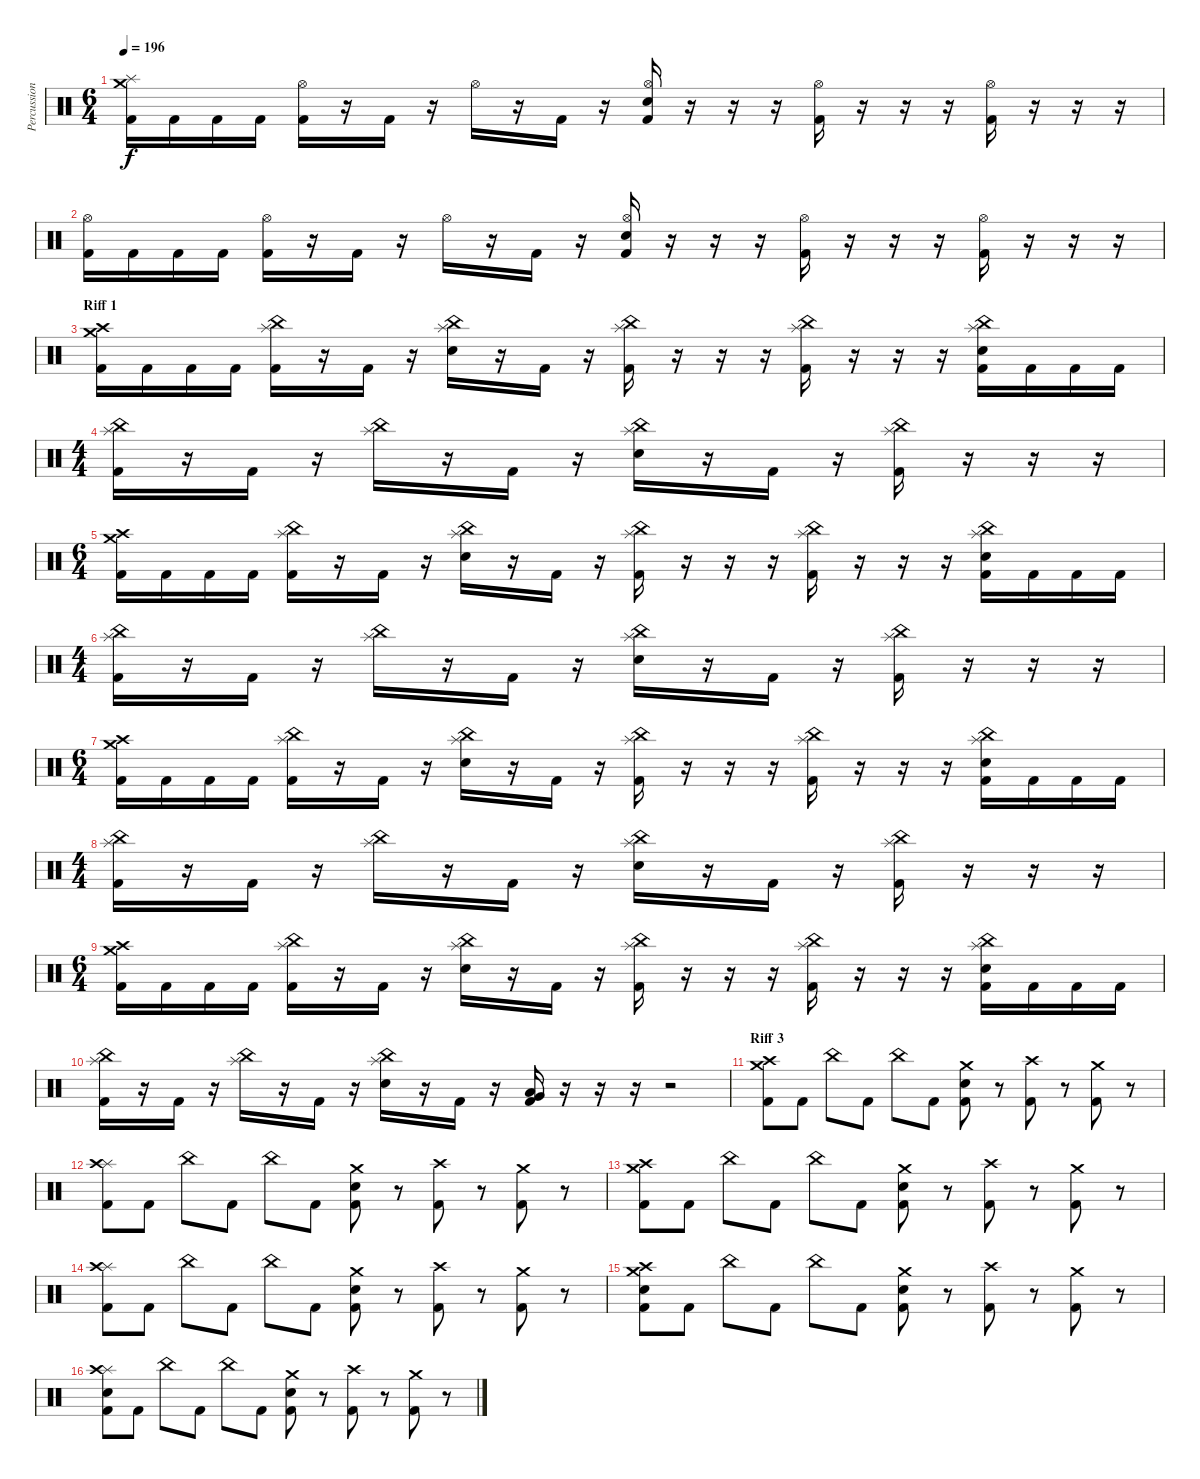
\track ("Percussion" "Percussion") {instrument percussion}
\staff {score}
\articulation defaults
\ts (6 4)
\tempo 196
\clef neutral
\ks c
("Crash medium (hit)" "Splash (hit)" "Kick (hit) 2").16{dy f} "Kick (hit) 2".16 "Kick (hit) 2".16 "Kick (hit) 2".16 ("Hi-Hat (open)" "Kick (hit) 2").16 r.16 "Kick (hit) 2".16 r.16 "Hi-Hat (open)".16 r.16 "Kick (hit) 2".16 r.16 ("Hi-Hat (open)" "Electric Snare (hit)" "Kick (hit) 2").16 r.16 r.16 r.16 ("Hi-Hat (open)" "Kick (hit) 2").16 r.16 r.16 r.16 ("Hi-Hat (open)" "Kick (hit) 2").16 r.16 r.16 r.16 |
("Hi-Hat (open)" "Kick (hit) 2").16 "Kick (hit) 2".16 "Kick (hit) 2".16 "Kick (hit) 2".16 ("Hi-Hat (open)" "Kick (hit) 2").16 r.16 "Kick (hit) 2".16 r.16 "Hi-Hat (open)".16 r.16 "Kick (hit) 2".16 r.16 ("Hi-Hat (open)" "Electric Snare (hit)" "Kick (hit) 2").16 r.16 r.16 r.16 ("Hi-Hat (open)" "Kick (hit) 2").16 r.16 r.16 r.16 ("Hi-Hat (open)" "Kick (hit) 2").16 r.16 r.16 r.16 |
\section ("" "Riff 1")
("Crash medium (hit)" "Crash high (hit)" "Kick (hit) 2").16 "Kick (hit) 2".16 "Kick (hit) 2".16 "Kick (hit) 2".16 ("Splash (hit)" "China (hit)" "Kick (hit) 2").16 r.16 "Kick (hit) 2".16 r.16 ("Splash (hit)" "China (hit)" "Electric Snare (hit)").16 r.16 "Kick (hit) 2".16 r.16 ("Splash (hit)" "China (hit)" "Kick (hit) 2").16 r.16 r.16 r.16 ("Splash (hit)" "China (hit)" "Kick (hit) 2").16 r.16 r.16 r.16 ("Splash (hit)" "China (hit)" "Electric Snare (hit)" "Kick (hit) 2").16 "Kick (hit) 2".16 "Kick (hit) 2".16 "Kick (hit) 2".16 |
\ts (4 4)
("Splash (hit)" "China (hit)" "Kick (hit) 2").16 r.16 "Kick (hit) 2".16 r.16 ("Splash (hit)" "China (hit)").16 r.16 "Kick (hit) 2".16 r.16 ("Splash (hit)" "China (hit)" "Electric Snare (hit)").16 r.16 "Kick (hit) 2".16 r.16 ("Splash (hit)" "China (hit)" "Kick (hit) 2").16 r.16 r.16 r.16 |
\ts (6 4)
("Crash medium (hit)" "Crash high (hit)" "Kick (hit) 2").16 "Kick (hit) 2".16 "Kick (hit) 2".16 "Kick (hit) 2".16 ("Splash (hit)" "China (hit)" "Kick (hit) 2").16 r.16 "Kick (hit) 2".16 r.16 ("Splash (hit)" "China (hit)" "Electric Snare (hit)").16 r.16 "Kick (hit) 2".16 r.16 ("Splash (hit)" "China (hit)" "Kick (hit) 2").16 r.16 r.16 r.16 ("Splash (hit)" "China (hit)" "Kick (hit) 2").16 r.16 r.16 r.16 ("Splash (hit)" "China (hit)" "Electric Snare (hit)" "Kick (hit) 2").16 "Kick (hit) 2".16 "Kick (hit) 2".16 "Kick (hit) 2".16 |
\ts (4 4)
("Splash (hit)" "China (hit)" "Kick (hit) 2").16 r.16 "Kick (hit) 2".16 r.16 ("Splash (hit)" "China (hit)").16 r.16 "Kick (hit) 2".16 r.16 ("Splash (hit)" "China (hit)" "Electric Snare (hit)").16 r.16 "Kick (hit) 2".16 r.16 ("Splash (hit)" "China (hit)" "Kick (hit) 2").16 r.16 r.16 r.16 |
\ts (6 4)
("Crash medium (hit)" "Crash high (hit)" "Kick (hit) 2").16 "Kick (hit) 2".16 "Kick (hit) 2".16 "Kick (hit) 2".16 ("Splash (hit)" "China (hit)" "Kick (hit) 2").16 r.16 "Kick (hit) 2".16 r.16 ("Splash (hit)" "China (hit)" "Electric Snare (hit)").16 r.16 "Kick (hit) 2".16 r.16 ("Splash (hit)" "China (hit)" "Kick (hit) 2").16 r.16 r.16 r.16 ("Splash (hit)" "China (hit)" "Kick (hit) 2").16 r.16 r.16 r.16 ("Splash (hit)" "China (hit)" "Electric Snare (hit)" "Kick (hit) 2").16 "Kick (hit) 2".16 "Kick (hit) 2".16 "Kick (hit) 2".16 |
\ts (4 4)
("Splash (hit)" "China (hit)" "Kick (hit) 2").16 r.16 "Kick (hit) 2".16 r.16 ("Splash (hit)" "China (hit)").16 r.16 "Kick (hit) 2".16 r.16 ("Splash (hit)" "China (hit)" "Electric Snare (hit)").16 r.16 "Kick (hit) 2".16 r.16 ("Splash (hit)" "China (hit)" "Kick (hit) 2").16 r.16 r.16 r.16 |
\ts (6 4)
("Crash medium (hit)" "Crash high (hit)" "Kick (hit) 2").16 "Kick (hit) 2".16 "Kick (hit) 2".16 "Kick (hit) 2".16 ("Splash (hit)" "China (hit)" "Kick (hit) 2").16 r.16 "Kick (hit) 2".16 r.16 ("Splash (hit)" "China (hit)" "Electric Snare (hit)").16 r.16 "Kick (hit) 2".16 r.16 ("Splash (hit)" "China (hit)" "Kick (hit) 2").16 r.16 r.16 r.16 ("Splash (hit)" "China (hit)" "Kick (hit) 2").16 r.16 r.16 r.16 ("Splash (hit)" "China (hit)" "Electric Snare (hit)" "Kick (hit) 2").16 "Kick (hit) 2".16 "Kick (hit) 2".16 "Kick (hit) 2".16 |
("Splash (hit)" "China (hit)" "Kick (hit) 2").16 r.16 "Kick (hit) 2".16 r.16 ("Splash (hit)" "China (hit)").16 r.16 "Kick (hit) 2".16 r.16 ("Splash (hit)" "China (hit)" "Electric Snare (hit)").16 r.16 "Kick (hit) 2".16 r.16 ("Very Low Tom (hit)" "Low Floor Tom (hit)" "Kick (hit) 2").16 r.16 r.16 r.16 r.2 |
\section ("" "Riff 3")
("Crash medium (hit)" "Crash high (hit)" "Kick (hit) 2").8 "Kick (hit) 2".8 "China (hit)".8 "Kick (hit) 2".8 "China (hit)".8 "Kick (hit) 2".8 ("Crash medium (hit)" "Electric Snare (hit)" "Kick (hit) 2").8 r.8 ("Crash high (hit)" "Kick (hit) 2").8 r.8 ("Crash medium (hit)" "Kick (hit) 2").8 r.8 |
("Splash (hit)" "Crash high (hit)" "Kick (hit) 2").8 "Kick (hit) 2".8 "China (hit)".8 "Kick (hit) 2".8 "China (hit)".8 "Kick (hit) 2".8 ("Crash medium (hit)" "Electric Snare (hit)" "Kick (hit) 2").8 r.8 ("Crash high (hit)" "Kick (hit) 2").8 r.8 ("Crash medium (hit)" "Kick (hit) 2").8 r.8 |
("Crash medium (hit)" "Crash high (hit)" "Kick (hit) 2").8 "Kick (hit) 2".8 "China (hit)".8 "Kick (hit) 2".8 "China (hit)".8 "Kick (hit) 2".8 ("Crash medium (hit)" "Electric Snare (hit)" "Kick (hit) 2").8 r.8 ("Crash high (hit)" "Kick (hit) 2").8 r.8 ("Crash medium (hit)" "Kick (hit) 2").8 r.8 |
("Splash (hit)" "Crash high (hit)" "Kick (hit) 2").8 "Kick (hit) 2".8 "China (hit)".8 "Kick (hit) 2".8 "China (hit)".8 "Kick (hit) 2".8 ("Crash medium (hit)" "Electric Snare (hit)" "Kick (hit) 2").8 r.8 ("Crash high (hit)" "Kick (hit) 2").8 r.8 ("Crash medium (hit)" "Kick (hit) 2").8 r.8 |
("Crash medium (hit)" "Crash high (hit)" "Electric Snare (hit)" "Kick (hit) 2").8 "Kick (hit) 2".8 "China (hit)".8 "Kick (hit) 2".8 "China (hit)".8 "Kick (hit) 2".8 ("Crash medium (hit)" "Electric Snare (hit)" "Kick (hit) 2").8 r.8 ("Crash high (hit)" "Kick (hit) 2").8 r.8 ("Crash medium (hit)" "Kick (hit) 2").8 r.8 |
("Splash (hit)" "Crash high (hit)" "Electric Snare (hit)" "Kick (hit) 2").8 "Kick (hit) 2".8 "China (hit)".8 "Kick (hit) 2".8 "China (hit)".8 "Kick (hit) 2".8 ("Crash medium (hit)" "Electric Snare (hit)" "Kick (hit) 2").8 r.8 ("Crash high (hit)" "Kick (hit) 2").8 r.8 ("Crash medium (hit)" "Kick (hit) 2").8 r.8
